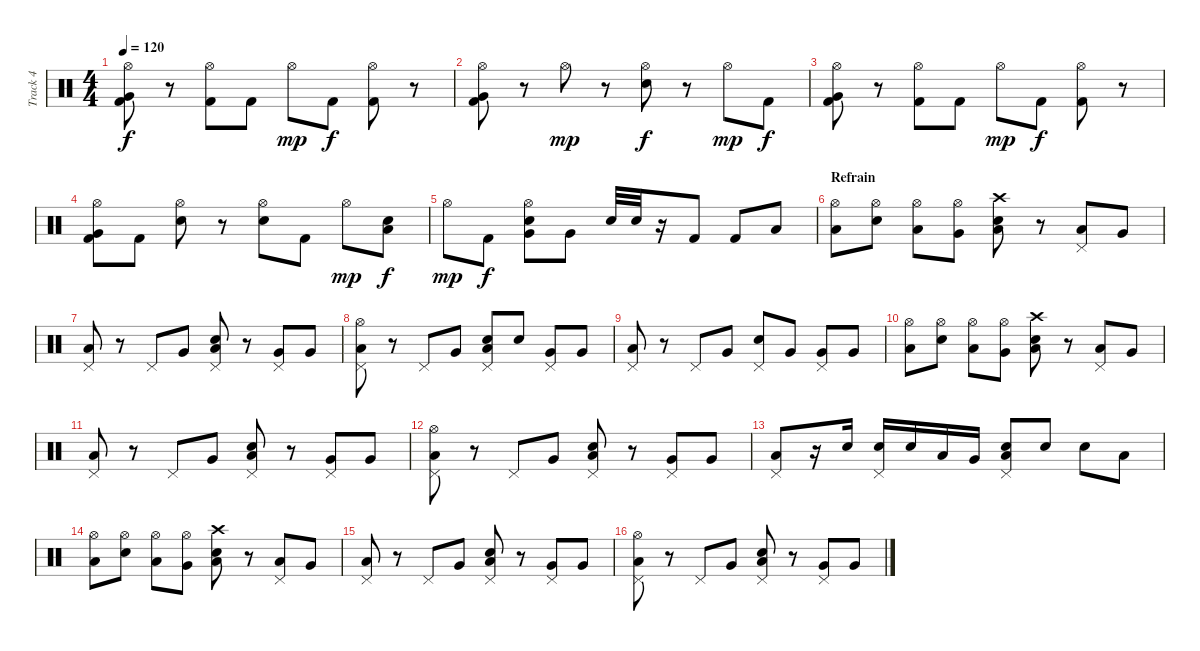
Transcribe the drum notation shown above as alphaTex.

\track ("Track 4" "Track 4") {instrument percussion}
\staff {score}
\articulation defaults
\ts (4 4)
\tempo 120
\clef neutral
\ks c
("Hi-Hat (open)" "Kick (hit) 2" "Very Low Tom (hit)").8{dy f} r.8 ("Hi-Hat (open)" "Kick (hit) 2").8 "Kick (hit) 2".8 "Hi-Hat (open)".8{dy mp} "Kick (hit) 2".8{dy f} ("Hi-Hat (open)" "Kick (hit) 2").8 r.8 |
("Hi-Hat (open)" "Kick (hit) 2" "Very Low Tom (hit)").8 r.8 "Hi-Hat (open)".8{dy mp} r.8 ("Hi-Hat (open)" "Snare (hit) 2").8{dy f} r.8 "Hi-Hat (open)".8{dy mp} "Kick (hit) 2".8{dy f} |
("Hi-Hat (open)" "Kick (hit) 2" "Very Low Tom (hit)").8 r.8 ("Hi-Hat (open)" "Kick (hit) 2").8 "Kick (hit) 2".8 "Hi-Hat (open)".8{dy mp} "Kick (hit) 2".8{dy f} ("Hi-Hat (open)" "Kick (hit) 2").8 r.8 |
("Hi-Hat (open)" "Kick (hit) 2" "Very Low Tom (hit)").8 "Kick (hit) 2".8 ("Hi-Hat (open)" "Electric Snare (hit)").8 r.8 ("Hi-Hat (open)" "Snare (hit) 2").8 "Kick (hit) 2".8 "Hi-Hat (open)".8{dy mp} ("Electric Snare (hit)" "Low Tom (hit)").8{dy f} |
"Hi-Hat (open)".8{dy mp} "Kick (hit) 2".8{dy f} ("Hi-Hat (open)" "Electric Snare (hit)" "Very Low Tom (hit)").8 "Very Low Tom (hit)".8 "Electric Snare (hit)".32 "Electric Snare (hit)".32 r.16 "Kick (hit) 2".8 "Kick (hit) 2".8 "Low Floor Tom (hit)".8 |
\section ("" "Refrain")
("Low Tom (hit)" "Hi-Hat (open)").8 ("Electric Snare (hit)" "Hi-Hat (open)").8 ("Low Tom (hit)" "Hi-Hat (open)").8 ("Very Low Tom (hit)" "Hi-Hat (open)").8 ("Low Tom (hit)" "Electric Snare (hit)" "Crash high (hit)").8 r.8 ("Pedal Hi-Hat (hit)" "Low Floor Tom (hit)").8 "Very Low Tom (hit)".8 |
("Pedal Hi-Hat (hit)" "Low Tom (hit)").8 r.8 "Pedal Hi-Hat (hit)".8 "Very Low Tom (hit)".8 ("Pedal Hi-Hat (hit)" "Low Tom (hit)" "Electric Snare (hit)").8 r.8 ("Pedal Hi-Hat (hit)" "Very Low Tom (hit)").8 "Very Low Tom (hit)".8 |
("Pedal Hi-Hat (hit)" "Low Tom (hit)" "Hi-Hat (open)").8 r.8 "Pedal Hi-Hat (hit)".8 "Very Low Tom (hit)".8 ("Pedal Hi-Hat (hit)" "Low Tom (hit)" "Electric Snare (hit)").8 "Electric Snare (hit)".8 ("Pedal Hi-Hat (hit)" "Very Low Tom (hit)").8 "Very Low Tom (hit)".8 |
("Pedal Hi-Hat (hit)" "Low Tom (hit)").8 r.8 "Pedal Hi-Hat (hit)".8 "Very Low Tom (hit)".8 ("Pedal Hi-Hat (hit)" "Electric Snare (hit)").8 "Very Low Tom (hit)".8 ("Pedal Hi-Hat (hit)" "Very Low Tom (hit)").8 "Very Low Tom (hit)".8 |
("Low Tom (hit)" "Hi-Hat (open)").8 ("Electric Snare (hit)" "Hi-Hat (open)").8 ("Low Tom (hit)" "Hi-Hat (open)").8 ("Very Low Tom (hit)" "Hi-Hat (open)").8 ("Low Tom (hit)" "Electric Snare (hit)" "Crash high (hit)").8 r.8 ("Pedal Hi-Hat (hit)" "Low Floor Tom (hit)").8 "Very Low Tom (hit)".8 |
("Pedal Hi-Hat (hit)" "Low Tom (hit)").8 r.8 "Pedal Hi-Hat (hit)".8 "Very Low Tom (hit)".8 ("Pedal Hi-Hat (hit)" "Low Tom (hit)" "Electric Snare (hit)").8 r.8 ("Pedal Hi-Hat (hit)" "Very Low Tom (hit)").8 "Very Low Tom (hit)".8 |
("Pedal Hi-Hat (hit)" "Low Tom (hit)" "Hi-Hat (open)").8 r.8 "Pedal Hi-Hat (hit)".8 "Very Low Tom (hit)".8 ("Pedal Hi-Hat (hit)" "Low Tom (hit)" "Electric Snare (hit)").8 r.8 ("Pedal Hi-Hat (hit)" "Very Low Tom (hit)").8 "Very Low Tom (hit)".8 |
("Pedal Hi-Hat (hit)" "Low Tom (hit)").8 r.16 "Electric Snare (hit)".16 ("Pedal Hi-Hat (hit)" "Electric Snare (hit)").16 "Electric Snare (hit)".16 "Low Tom (hit)".16 "Very Low Tom (hit)".16 ("Electric Snare (hit)" "Low Floor Tom (hit)" "Pedal Hi-Hat (hit)").8 "Electric Snare (hit)".8 "Electric Snare (hit)".8 "Low Tom (hit)".8 |
("Low Tom (hit)" "Hi-Hat (open)").8 ("Electric Snare (hit)" "Hi-Hat (open)").8 ("Low Tom (hit)" "Hi-Hat (open)").8 ("Very Low Tom (hit)" "Hi-Hat (open)").8 ("Low Tom (hit)" "Electric Snare (hit)" "Crash high (hit)").8 r.8 ("Pedal Hi-Hat (hit)" "Low Floor Tom (hit)").8 "Very Low Tom (hit)".8 |
("Pedal Hi-Hat (hit)" "Low Tom (hit)").8 r.8 "Pedal Hi-Hat (hit)".8 "Very Low Tom (hit)".8 ("Pedal Hi-Hat (hit)" "Low Tom (hit)" "Electric Snare (hit)").8 r.8 ("Pedal Hi-Hat (hit)" "Very Low Tom (hit)").8 "Very Low Tom (hit)".8 |
("Pedal Hi-Hat (hit)" "Low Tom (hit)" "Hi-Hat (open)").8 r.8 "Pedal Hi-Hat (hit)".8 "Very Low Tom (hit)".8 ("Pedal Hi-Hat (hit)" "Low Tom (hit)" "Electric Snare (hit)").8 r.8 ("Pedal Hi-Hat (hit)" "Very Low Tom (hit)").8 "Very Low Tom (hit)".8
